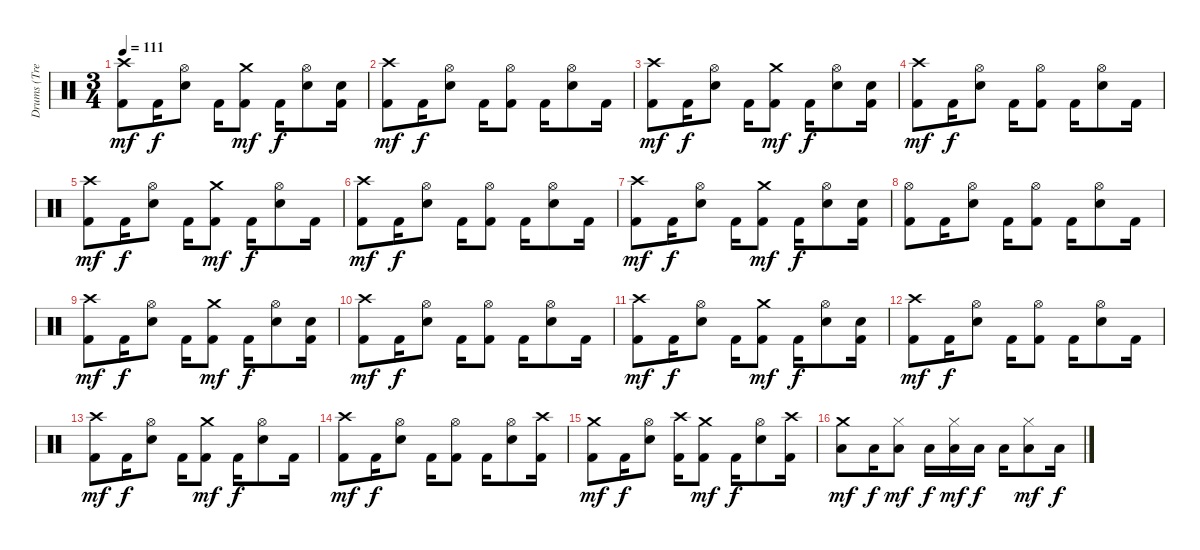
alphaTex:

\track ("Drums (Tre Cool)" "Drums (Tre") {instrument percussion}
\staff {score}
\articulation defaults
\ts (3 4)
\tempo 111
\clef neutral
\ks c
("Crash high (hit)" "Kick (hit) 2").8{dy mf} "Kick (hit) 2".16{dy f} ("Hi-Hat (open)" "Electric Snare (hit)").8 "Kick (hit) 2".16 ("Crash medium (hit)" "Kick (hit) 2").8{dy mf} "Kick (hit) 2".16{dy f} ("Hi-Hat (open)" "Electric Snare (hit)").8 ("Electric Snare (hit)" "Kick (hit) 2").16 |
("Crash high (hit)" "Kick (hit) 2").8{dy mf} "Kick (hit) 2".16{dy f} ("Hi-Hat (open)" "Electric Snare (hit)").8 "Kick (hit) 2".16 ("Hi-Hat (open)" "Kick (hit) 2").8 "Kick (hit) 2".16 ("Hi-Hat (open)" "Electric Snare (hit)").8 "Kick (hit) 2".16 |
("Crash high (hit)" "Kick (hit) 2").8{dy mf} "Kick (hit) 2".16{dy f} ("Hi-Hat (open)" "Electric Snare (hit)").8 "Kick (hit) 2".16 ("Crash medium (hit)" "Kick (hit) 2").8{dy mf} "Kick (hit) 2".16{dy f} ("Hi-Hat (open)" "Electric Snare (hit)").8 ("Electric Snare (hit)" "Kick (hit) 2").16 |
("Crash high (hit)" "Kick (hit) 2").8{dy mf} "Kick (hit) 2".16{dy f} ("Hi-Hat (open)" "Electric Snare (hit)").8 "Kick (hit) 2".16 ("Hi-Hat (open)" "Kick (hit) 2").8 "Kick (hit) 2".16 ("Hi-Hat (open)" "Electric Snare (hit)").8 "Kick (hit) 2".16 |
("Crash high (hit)" "Kick (hit) 2").8{dy mf} "Kick (hit) 2".16{dy f} ("Hi-Hat (open)" "Electric Snare (hit)").8 "Kick (hit) 2".16 ("Crash medium (hit)" "Kick (hit) 2").8{dy mf} "Kick (hit) 2".16{dy f} ("Hi-Hat (open)" "Electric Snare (hit)").8 "Kick (hit) 2".16 |
("Crash high (hit)" "Kick (hit) 2").8{dy mf} "Kick (hit) 2".16{dy f} ("Hi-Hat (open)" "Electric Snare (hit)").8 "Kick (hit) 2".16 ("Hi-Hat (open)" "Kick (hit) 2").8 "Kick (hit) 2".16 ("Hi-Hat (open)" "Electric Snare (hit)").8 "Kick (hit) 2".16 |
("Crash high (hit)" "Kick (hit) 2").8{dy mf} "Kick (hit) 2".16{dy f} ("Hi-Hat (open)" "Electric Snare (hit)").8 "Kick (hit) 2".16 ("Crash medium (hit)" "Kick (hit) 2").8{dy mf} "Kick (hit) 2".16{dy f} ("Hi-Hat (open)" "Electric Snare (hit)").8 ("Electric Snare (hit)" "Kick (hit) 2").16 |
("Hi-Hat (open)" "Kick (hit) 2").8 "Kick (hit) 2".16 ("Hi-Hat (open)" "Electric Snare (hit)").8 "Kick (hit) 2".16 ("Hi-Hat (open)" "Kick (hit) 2").8 "Kick (hit) 2".16 ("Hi-Hat (open)" "Electric Snare (hit)").8 "Kick (hit) 2".16 |
("Crash high (hit)" "Kick (hit) 2").8{dy mf} "Kick (hit) 2".16{dy f} ("Hi-Hat (open)" "Electric Snare (hit)").8 "Kick (hit) 2".16 ("Crash medium (hit)" "Kick (hit) 2").8{dy mf} "Kick (hit) 2".16{dy f} ("Hi-Hat (open)" "Electric Snare (hit)").8 ("Electric Snare (hit)" "Kick (hit) 2").16 |
("Crash high (hit)" "Kick (hit) 2").8{dy mf} "Kick (hit) 2".16{dy f} ("Hi-Hat (open)" "Electric Snare (hit)").8 "Kick (hit) 2".16 ("Hi-Hat (open)" "Kick (hit) 2").8 "Kick (hit) 2".16 ("Hi-Hat (open)" "Electric Snare (hit)").8 "Kick (hit) 2".16 |
("Crash high (hit)" "Kick (hit) 2").8{dy mf} "Kick (hit) 2".16{dy f} ("Hi-Hat (open)" "Electric Snare (hit)").8 "Kick (hit) 2".16 ("Crash medium (hit)" "Kick (hit) 2").8{dy mf} "Kick (hit) 2".16{dy f} ("Hi-Hat (open)" "Electric Snare (hit)").8 ("Electric Snare (hit)" "Kick (hit) 2").16 |
("Crash high (hit)" "Kick (hit) 2").8{dy mf} "Kick (hit) 2".16{dy f} ("Hi-Hat (open)" "Electric Snare (hit)").8 "Kick (hit) 2".16 ("Hi-Hat (open)" "Kick (hit) 2").8 "Kick (hit) 2".16 ("Hi-Hat (open)" "Electric Snare (hit)").8 "Kick (hit) 2".16 |
("Crash high (hit)" "Kick (hit) 2").8{dy mf} "Kick (hit) 2".16{dy f} ("Hi-Hat (open)" "Electric Snare (hit)").8 "Kick (hit) 2".16 ("Crash medium (hit)" "Kick (hit) 2").8{dy mf} "Kick (hit) 2".16{dy f} ("Hi-Hat (open)" "Electric Snare (hit)").8 "Kick (hit) 2".16 |
("Crash high (hit)" "Kick (hit) 2").8{dy mf} "Kick (hit) 2".16{dy f} ("Hi-Hat (open)" "Electric Snare (hit)").8 "Kick (hit) 2".16 ("Hi-Hat (open)" "Kick (hit) 2").8 "Kick (hit) 2".16 ("Hi-Hat (open)" "Electric Snare (hit)").8 ("Crash high (hit)" "Kick (hit) 2").16 |
("Crash medium (hit)" "Kick (hit) 2").8{dy mf} "Kick (hit) 2".16{dy f} ("Hi-Hat (open)" "Electric Snare (hit)").8 ("Crash high (hit)" "Kick (hit) 2").16 ("Crash medium (hit)" "Kick (hit) 2").8{dy mf} "Kick (hit) 2".16{dy f} ("Hi-Hat (open)" "Electric Snare (hit)").8 ("Crash high (hit)" "Kick (hit) 2").16 |
("Crash medium (hit)" "Low Floor Tom (hit)").8{dy mf} "Low Floor Tom (hit)".16{dy f} ("Hi-Hat (closed)" "Low Tom (hit)").8{dy mf} "Low Tom (hit)".16{dy f} ("Hi-Hat (closed)" "Low Floor Tom (hit)").16{dy mf} "Low Floor Tom (hit)".16{dy f} "Low Floor Tom (hit)".16 ("Hi-Hat (closed)" "Low Tom (hit)").8{dy mf} "Low Tom (hit)".16{dy f}
